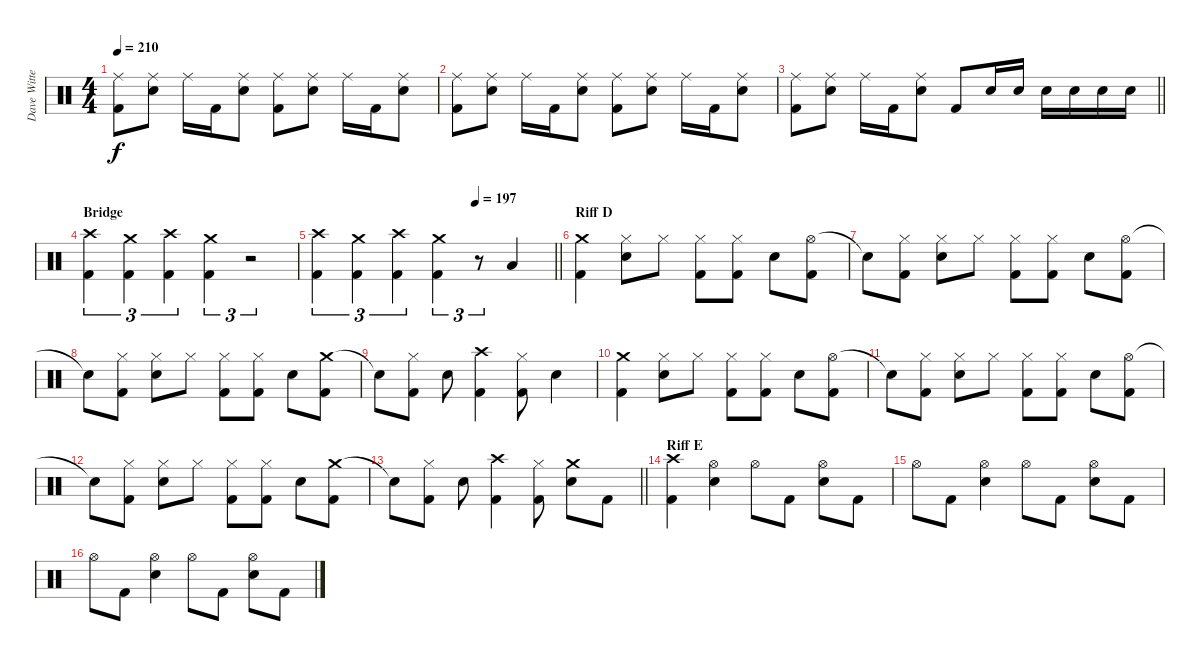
\track ("Dave Witte" "Dave Witte") {instrument percussion}
\staff {score}
\articulation defaults
\ts (4 4)
\tempo 210
\clef neutral
\ks c
("Ride (middle)" "Kick (hit) 2").8{dy f} ("Ride (middle)" "Electric Snare (hit)").8 "Ride (middle)".16 "Kick (hit) 2".16 ("Ride (middle)" "Electric Snare (hit)").8 ("Ride (middle)" "Kick (hit) 2").8 ("Ride (middle)" "Electric Snare (hit)").8 "Ride (middle)".16 "Kick (hit) 2".16 ("Ride (middle)" "Electric Snare (hit)").8 |
("Ride (middle)" "Kick (hit) 2").8 ("Ride (middle)" "Electric Snare (hit)").8 "Ride (middle)".16 "Kick (hit) 2".16 ("Ride (middle)" "Electric Snare (hit)").8 ("Ride (middle)" "Kick (hit) 2").8 ("Ride (middle)" "Electric Snare (hit)").8 "Ride (middle)".16 "Kick (hit) 2".16 ("Ride (middle)" "Electric Snare (hit)").8 |
\barLineRight lightlight
("Ride (middle)" "Kick (hit) 2").8 ("Ride (middle)" "Electric Snare (hit)").8 "Ride (middle)".16 "Kick (hit) 2".16 ("Ride (middle)" "Electric Snare (hit)").8 "Kick (hit) 2".8 "Electric Snare (hit)".16 "Electric Snare (hit)".16 "Electric Snare (hit)".16 "Electric Snare (hit)".16 "Electric Snare (hit)".16 "Electric Snare (hit)".16 |
\section ("" "Bridge")
("Crash high (hit)" "Kick (hit) 2").4{tu (3 2)} ("Crash medium (hit)" "Kick (hit) 2").4{tu (3 2)} ("Crash high (hit)" "Kick (hit) 2").4{tu (3 2)} ("Crash medium (hit)" "Kick (hit) 2").4{tu (3 2)} r.2{tu (3 2) volume 0} |
\tempo (197 0.6666666666666666)
\barLineRight lightlight
("Crash high (hit)" "Kick (hit) 2").4{tu (3 2) volume 14} ("Crash medium (hit)" "Kick (hit) 2").4{tu (3 2)} ("Crash high (hit)" "Kick (hit) 2").4{tu (3 2)} ("Crash medium (hit)" "Kick (hit) 2").4{tu (3 2)} r.8{tu (3 2) volume 0} "Low Floor Tom (hit)".4{volume 14} |
\section ("" "Riff D")
("Crash medium (hit)" "Kick (hit) 2").4 ("Hi-Hat (closed)" "Electric Snare (hit)").8 "Hi-Hat (closed)".8 ("Hi-Hat (closed)" "Kick (hit) 2").8 ("Hi-Hat (closed)" "Kick (hit) 2").8 "Electric Snare (hit)".8 ("Hi-Hat (open)" "Kick (hit) 2").8 |
"Snare (hit)"{t}.8 ("Hi-Hat (closed)" "Kick (hit) 2").8 ("Hi-Hat (closed)" "Electric Snare (hit)").8 "Hi-Hat (closed)".8 ("Hi-Hat (closed)" "Kick (hit) 2").8 ("Hi-Hat (closed)" "Kick (hit) 2").8 "Electric Snare (hit)".8 ("Hi-Hat (open)" "Kick (hit) 2").8 |
"Snare (hit)"{t}.8 ("Hi-Hat (closed)" "Kick (hit) 2").8 ("Hi-Hat (closed)" "Electric Snare (hit)").8 "Hi-Hat (closed)".8 ("Hi-Hat (closed)" "Kick (hit) 2").8 ("Hi-Hat (closed)" "Kick (hit) 2").8 "Electric Snare (hit)".8 ("Crash medium (hit)" "Kick (hit) 2").8 |
"Snare (hit)"{t}.8 ("Hi-Hat (closed)" "Kick (hit) 2").8 "Electric Snare (hit)".8 ("Crash high (hit)" "Kick (hit) 2").4 ("Hi-Hat (closed)" "Kick (hit) 2").8 "Electric Snare (hit)".4 |
("Crash medium (hit)" "Kick (hit) 2").4 ("Hi-Hat (closed)" "Electric Snare (hit)").8 "Hi-Hat (closed)".8 ("Hi-Hat (closed)" "Kick (hit) 2").8 ("Hi-Hat (closed)" "Kick (hit) 2").8 "Electric Snare (hit)".8 ("Hi-Hat (open)" "Kick (hit) 2").8 |
"Snare (hit)"{t}.8 ("Hi-Hat (closed)" "Kick (hit) 2").8 ("Hi-Hat (closed)" "Electric Snare (hit)").8 "Hi-Hat (closed)".8 ("Hi-Hat (closed)" "Kick (hit) 2").8 ("Hi-Hat (closed)" "Kick (hit) 2").8 "Electric Snare (hit)".8 ("Hi-Hat (open)" "Kick (hit) 2").8 |
"Snare (hit)"{t}.8 ("Hi-Hat (closed)" "Kick (hit) 2").8 ("Hi-Hat (closed)" "Electric Snare (hit)").8 "Hi-Hat (closed)".8 ("Hi-Hat (closed)" "Kick (hit) 2").8 ("Hi-Hat (closed)" "Kick (hit) 2").8 "Electric Snare (hit)".8 ("Crash medium (hit)" "Kick (hit) 2").8 |
\barLineRight lightlight "Snare (hit)"{t}.8
("Hi-Hat (closed)" "Kick (hit) 2").8 "Electric Snare (hit)".8 ("Crash high (hit)" "Kick (hit) 2").4 ("Hi-Hat (closed)" "Kick (hit) 2").8 ("Crash medium (hit)" "Electric Snare (hit)").8 "Kick (hit) 2".8 |
\section ("" "Riff E")
("Crash high (hit)" "Kick (hit) 2").4 ("Hi-Hat (open)" "Electric Snare (hit)").4 "Hi-Hat (open)".8 "Kick (hit) 2".8 ("Hi-Hat (open)" "Electric Snare (hit)").8 "Kick (hit) 2".8 |
"Hi-Hat (open)".8 "Kick (hit) 2".8 ("Hi-Hat (open)" "Electric Snare (hit)").4 "Hi-Hat (open)".8 "Kick (hit) 2".8 ("Hi-Hat (open)" "Electric Snare (hit)").8 "Kick (hit) 2".8 |
"Hi-Hat (open)".8 "Kick (hit) 2".8 ("Hi-Hat (open)" "Electric Snare (hit)").4 "Hi-Hat (open)".8 "Kick (hit) 2".8 ("Hi-Hat (open)" "Electric Snare (hit)").8 "Kick (hit) 2".8
